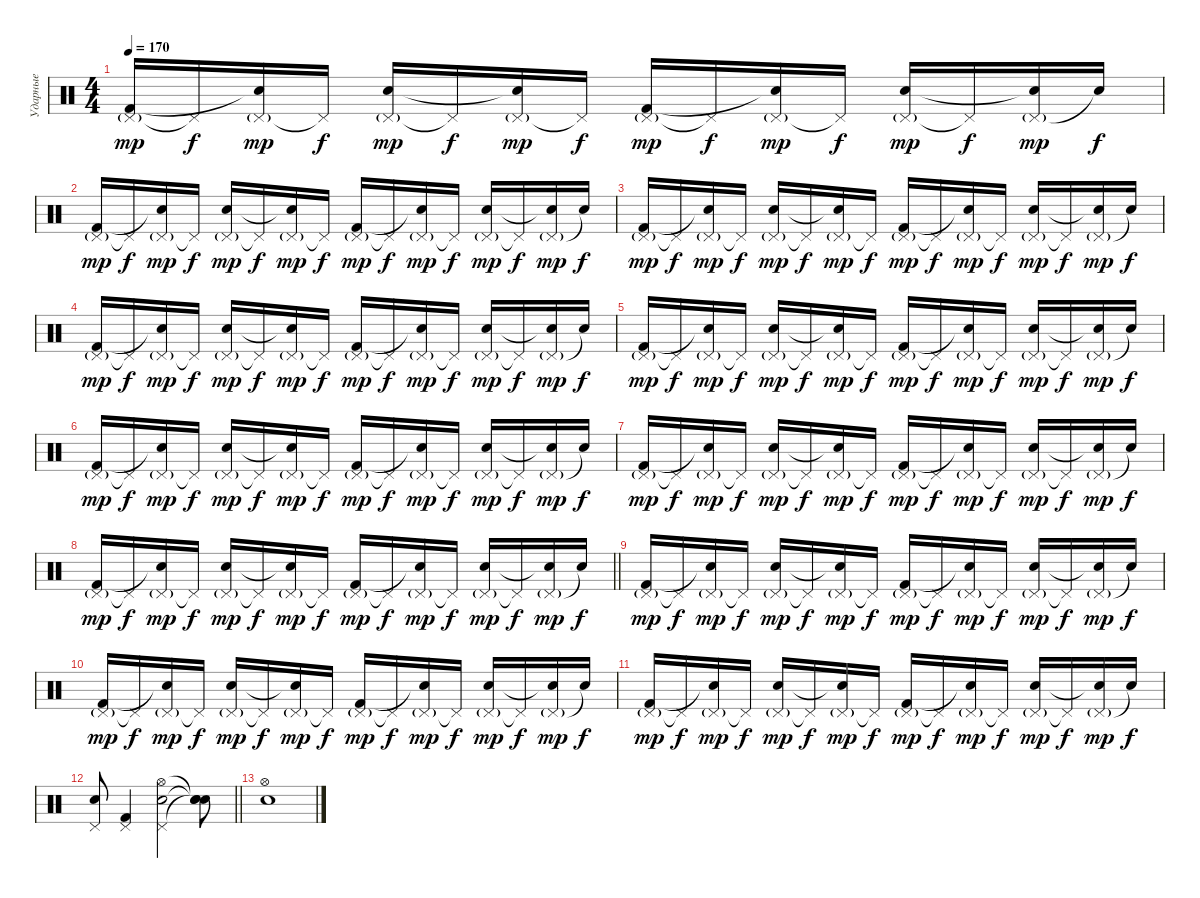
\track ("Ударные" "Ударные") {instrument percussion}
\staff {score}
\articulation defaults
\ts (4 4)
\tempo 170
\clef neutral
\ks c
("Pedal Hi-Hat (hit)"{g} "Kick (hit) 2").16{dy mp} "Pedal Hi-Hat (hit)"{t}.16{dy f} ("Pedal Hi-Hat (hit)"{g} "Snare (hit)"{t}).16{dy mp} "Pedal Hi-Hat (hit)"{t}.16{dy f} ("Pedal Hi-Hat (hit)"{g} "Electric Snare (hit)").16{dy mp} "Pedal Hi-Hat (hit)"{t}.16{dy f} ("Pedal Hi-Hat (hit)"{g} "Snare (hit)"{t}).16{dy mp} "Pedal Hi-Hat (hit)"{t}.16{dy f} ("Pedal Hi-Hat (hit)"{g} "Kick (hit) 2").16{dy mp} "Pedal Hi-Hat (hit)"{t}.16{dy f} ("Pedal Hi-Hat (hit)"{g} "Snare (hit)"{t}).16{dy mp} "Pedal Hi-Hat (hit)"{t}.16{dy f} ("Pedal Hi-Hat (hit)"{g} "Electric Snare (hit)").16{dy mp} "Pedal Hi-Hat (hit)"{t}.16{dy f} ("Pedal Hi-Hat (hit)"{g} "Snare (hit)"{t}).16{dy mp} "Snare (hit)"{t}.16{dy f} |
("Pedal Hi-Hat (hit)"{g} "Kick (hit) 2").16{dy mp} "Pedal Hi-Hat (hit)"{t}.16{dy f} ("Pedal Hi-Hat (hit)"{g} "Snare (hit)"{t}).16{dy mp} "Pedal Hi-Hat (hit)"{t}.16{dy f} ("Pedal Hi-Hat (hit)"{g} "Electric Snare (hit)").16{dy mp} "Pedal Hi-Hat (hit)"{t}.16{dy f} ("Pedal Hi-Hat (hit)"{g} "Snare (hit)"{t}).16{dy mp} "Pedal Hi-Hat (hit)"{t}.16{dy f} ("Pedal Hi-Hat (hit)"{g} "Kick (hit) 2").16{dy mp} "Pedal Hi-Hat (hit)"{t}.16{dy f} ("Pedal Hi-Hat (hit)"{g} "Snare (hit)"{t}).16{dy mp} "Pedal Hi-Hat (hit)"{t}.16{dy f} ("Pedal Hi-Hat (hit)"{g} "Electric Snare (hit)").16{dy mp} "Pedal Hi-Hat (hit)"{t}.16{dy f} ("Pedal Hi-Hat (hit)"{g} "Snare (hit)"{t}).16{dy mp} "Snare (hit)"{t}.16{dy f} |
("Pedal Hi-Hat (hit)"{g} "Kick (hit) 2").16{dy mp} "Pedal Hi-Hat (hit)"{t}.16{dy f} ("Pedal Hi-Hat (hit)"{g} "Snare (hit)"{t}).16{dy mp} "Pedal Hi-Hat (hit)"{t}.16{dy f} ("Pedal Hi-Hat (hit)"{g} "Electric Snare (hit)").16{dy mp} "Pedal Hi-Hat (hit)"{t}.16{dy f} ("Pedal Hi-Hat (hit)"{g} "Snare (hit)"{t}).16{dy mp} "Pedal Hi-Hat (hit)"{t}.16{dy f} ("Pedal Hi-Hat (hit)"{g} "Kick (hit) 2").16{dy mp} "Pedal Hi-Hat (hit)"{t}.16{dy f} ("Pedal Hi-Hat (hit)"{g} "Snare (hit)"{t}).16{dy mp} "Pedal Hi-Hat (hit)"{t}.16{dy f} ("Pedal Hi-Hat (hit)"{g} "Electric Snare (hit)").16{dy mp} "Pedal Hi-Hat (hit)"{t}.16{dy f} ("Pedal Hi-Hat (hit)"{g} "Snare (hit)"{t}).16{dy mp} "Snare (hit)"{t}.16{dy f} |
("Pedal Hi-Hat (hit)"{g} "Kick (hit) 2").16{dy mp} "Pedal Hi-Hat (hit)"{t}.16{dy f} ("Pedal Hi-Hat (hit)"{g} "Snare (hit)"{t}).16{dy mp} "Pedal Hi-Hat (hit)"{t}.16{dy f} ("Pedal Hi-Hat (hit)"{g} "Electric Snare (hit)").16{dy mp} "Pedal Hi-Hat (hit)"{t}.16{dy f} ("Pedal Hi-Hat (hit)"{g} "Snare (hit)"{t}).16{dy mp} "Pedal Hi-Hat (hit)"{t}.16{dy f} ("Pedal Hi-Hat (hit)"{g} "Kick (hit) 2").16{dy mp} "Pedal Hi-Hat (hit)"{t}.16{dy f} ("Pedal Hi-Hat (hit)"{g} "Snare (hit)"{t}).16{dy mp} "Pedal Hi-Hat (hit)"{t}.16{dy f} ("Pedal Hi-Hat (hit)"{g} "Electric Snare (hit)").16{dy mp} "Pedal Hi-Hat (hit)"{t}.16{dy f} ("Pedal Hi-Hat (hit)"{g} "Snare (hit)"{t}).16{dy mp} "Snare (hit)"{t}.16{dy f} |
("Pedal Hi-Hat (hit)"{g} "Kick (hit) 2").16{dy mp} "Pedal Hi-Hat (hit)"{t}.16{dy f} ("Pedal Hi-Hat (hit)"{g} "Snare (hit)"{t}).16{dy mp} "Pedal Hi-Hat (hit)"{t}.16{dy f} ("Pedal Hi-Hat (hit)"{g} "Electric Snare (hit)").16{dy mp} "Pedal Hi-Hat (hit)"{t}.16{dy f} ("Pedal Hi-Hat (hit)"{g} "Snare (hit)"{t}).16{dy mp} "Pedal Hi-Hat (hit)"{t}.16{dy f} ("Pedal Hi-Hat (hit)"{g} "Kick (hit) 2").16{dy mp} "Pedal Hi-Hat (hit)"{t}.16{dy f} ("Pedal Hi-Hat (hit)"{g} "Snare (hit)"{t}).16{dy mp} "Pedal Hi-Hat (hit)"{t}.16{dy f} ("Pedal Hi-Hat (hit)"{g} "Electric Snare (hit)").16{dy mp} "Pedal Hi-Hat (hit)"{t}.16{dy f} ("Pedal Hi-Hat (hit)"{g} "Snare (hit)"{t}).16{dy mp} "Snare (hit)"{t}.16{dy f} |
("Pedal Hi-Hat (hit)"{g} "Kick (hit) 2").16{dy mp} "Pedal Hi-Hat (hit)"{t}.16{dy f} ("Pedal Hi-Hat (hit)"{g} "Snare (hit)"{t}).16{dy mp} "Pedal Hi-Hat (hit)"{t}.16{dy f} ("Pedal Hi-Hat (hit)"{g} "Electric Snare (hit)").16{dy mp} "Pedal Hi-Hat (hit)"{t}.16{dy f} ("Pedal Hi-Hat (hit)"{g} "Snare (hit)"{t}).16{dy mp} "Pedal Hi-Hat (hit)"{t}.16{dy f} ("Pedal Hi-Hat (hit)"{g} "Kick (hit) 2").16{dy mp} "Pedal Hi-Hat (hit)"{t}.16{dy f} ("Pedal Hi-Hat (hit)"{g} "Snare (hit)"{t}).16{dy mp} "Pedal Hi-Hat (hit)"{t}.16{dy f} ("Pedal Hi-Hat (hit)"{g} "Electric Snare (hit)").16{dy mp} "Pedal Hi-Hat (hit)"{t}.16{dy f} ("Pedal Hi-Hat (hit)"{g} "Snare (hit)"{t}).16{dy mp} "Snare (hit)"{t}.16{dy f} |
("Pedal Hi-Hat (hit)"{g} "Kick (hit) 2").16{dy mp} "Pedal Hi-Hat (hit)"{t}.16{dy f} ("Pedal Hi-Hat (hit)"{g} "Snare (hit)"{t}).16{dy mp} "Pedal Hi-Hat (hit)"{t}.16{dy f} ("Pedal Hi-Hat (hit)"{g} "Electric Snare (hit)").16{dy mp} "Pedal Hi-Hat (hit)"{t}.16{dy f} ("Pedal Hi-Hat (hit)"{g} "Snare (hit)"{t}).16{dy mp} "Pedal Hi-Hat (hit)"{t}.16{dy f} ("Pedal Hi-Hat (hit)"{g} "Kick (hit) 2").16{dy mp} "Pedal Hi-Hat (hit)"{t}.16{dy f} ("Pedal Hi-Hat (hit)"{g} "Snare (hit)"{t}).16{dy mp} "Pedal Hi-Hat (hit)"{t}.16{dy f} ("Pedal Hi-Hat (hit)"{g} "Electric Snare (hit)").16{dy mp} "Pedal Hi-Hat (hit)"{t}.16{dy f} ("Pedal Hi-Hat (hit)"{g} "Snare (hit)"{t}).16{dy mp} "Snare (hit)"{t}.16{dy f} |
\barLineRight lightlight
("Pedal Hi-Hat (hit)"{g} "Kick (hit) 2").16{dy mp} "Pedal Hi-Hat (hit)"{t}.16{dy f} ("Pedal Hi-Hat (hit)"{g} "Snare (hit)"{t}).16{dy mp} "Pedal Hi-Hat (hit)"{t}.16{dy f} ("Pedal Hi-Hat (hit)"{g} "Electric Snare (hit)").16{dy mp} "Pedal Hi-Hat (hit)"{t}.16{dy f} ("Pedal Hi-Hat (hit)"{g} "Snare (hit)"{t}).16{dy mp} "Pedal Hi-Hat (hit)"{t}.16{dy f} ("Pedal Hi-Hat (hit)"{g} "Kick (hit) 2").16{dy mp} "Pedal Hi-Hat (hit)"{t}.16{dy f} ("Pedal Hi-Hat (hit)"{g} "Snare (hit)"{t}).16{dy mp} "Pedal Hi-Hat (hit)"{t}.16{dy f} ("Pedal Hi-Hat (hit)"{g} "Electric Snare (hit)").16{dy mp} "Pedal Hi-Hat (hit)"{t}.16{dy f} ("Pedal Hi-Hat (hit)"{g} "Snare (hit)"{t}).16{dy mp} "Snare (hit)"{t}.16{dy f} |
("Pedal Hi-Hat (hit)"{g} "Kick (hit) 2").16{dy mp} "Pedal Hi-Hat (hit)"{t}.16{dy f} ("Pedal Hi-Hat (hit)"{g} "Snare (hit)"{t}).16{dy mp} "Pedal Hi-Hat (hit)"{t}.16{dy f} ("Pedal Hi-Hat (hit)"{g} "Electric Snare (hit)").16{dy mp} "Pedal Hi-Hat (hit)"{t}.16{dy f} ("Pedal Hi-Hat (hit)"{g} "Snare (hit)"{t}).16{dy mp} "Pedal Hi-Hat (hit)"{t}.16{dy f} ("Pedal Hi-Hat (hit)"{g} "Kick (hit) 2").16{dy mp} "Pedal Hi-Hat (hit)"{t}.16{dy f} ("Pedal Hi-Hat (hit)"{g} "Snare (hit)"{t}).16{dy mp} "Pedal Hi-Hat (hit)"{t}.16{dy f} ("Pedal Hi-Hat (hit)"{g} "Electric Snare (hit)").16{dy mp} "Pedal Hi-Hat (hit)"{t}.16{dy f} ("Pedal Hi-Hat (hit)"{g} "Snare (hit)"{t}).16{dy mp} "Snare (hit)"{t}.16{dy f} |
("Pedal Hi-Hat (hit)"{g} "Kick (hit) 2").16{dy mp} "Pedal Hi-Hat (hit)"{t}.16{dy f} ("Pedal Hi-Hat (hit)"{g} "Snare (hit)"{t}).16{dy mp} "Pedal Hi-Hat (hit)"{t}.16{dy f} ("Pedal Hi-Hat (hit)"{g} "Electric Snare (hit)").16{dy mp} "Pedal Hi-Hat (hit)"{t}.16{dy f} ("Pedal Hi-Hat (hit)"{g} "Snare (hit)"{t}).16{dy mp} "Pedal Hi-Hat (hit)"{t}.16{dy f} ("Pedal Hi-Hat (hit)"{g} "Kick (hit) 2").16{dy mp} "Pedal Hi-Hat (hit)"{t}.16{dy f} ("Pedal Hi-Hat (hit)"{g} "Snare (hit)"{t}).16{dy mp} "Pedal Hi-Hat (hit)"{t}.16{dy f} ("Pedal Hi-Hat (hit)"{g} "Electric Snare (hit)").16{dy mp} "Pedal Hi-Hat (hit)"{t}.16{dy f} ("Pedal Hi-Hat (hit)"{g} "Snare (hit)"{t}).16{dy mp} "Snare (hit)"{t}.16{dy f} |
("Pedal Hi-Hat (hit)"{g} "Kick (hit) 2").16{dy mp} "Pedal Hi-Hat (hit)"{t}.16{dy f} ("Pedal Hi-Hat (hit)"{g} "Snare (hit)"{t}).16{dy mp} "Pedal Hi-Hat (hit)"{t}.16{dy f} ("Pedal Hi-Hat (hit)"{g} "Electric Snare (hit)").16{dy mp} "Pedal Hi-Hat (hit)"{t}.16{dy f} ("Pedal Hi-Hat (hit)"{g} "Snare (hit)"{t}).16{dy mp} "Pedal Hi-Hat (hit)"{t}.16{dy f} ("Pedal Hi-Hat (hit)"{g} "Kick (hit) 2").16{dy mp} "Pedal Hi-Hat (hit)"{t}.16{dy f} ("Pedal Hi-Hat (hit)"{g} "Snare (hit)"{t}).16{dy mp} "Pedal Hi-Hat (hit)"{t}.16{dy f} ("Pedal Hi-Hat (hit)"{g} "Electric Snare (hit)").16{dy mp} "Pedal Hi-Hat (hit)"{t}.16{dy f} ("Pedal Hi-Hat (hit)"{g} "Snare (hit)"{t}).16{dy mp} "Snare (hit)"{t}.16{dy f} |
\barLineRight lightlight
("Pedal Hi-Hat (hit)" "Electric Snare (hit)").8 ("Pedal Hi-Hat (hit)" "Kick (hit) 2").4 ("Pedal Hi-Hat (hit)" "Electric Snare (hit)" "Hi-Hat (open)").2 ("Snare (hit)"{t} "Snare (hit)"{t} "Snare (hit)"{t}).8 |
("Hi-Hat (open)" "Electric Snare (hit)").1
